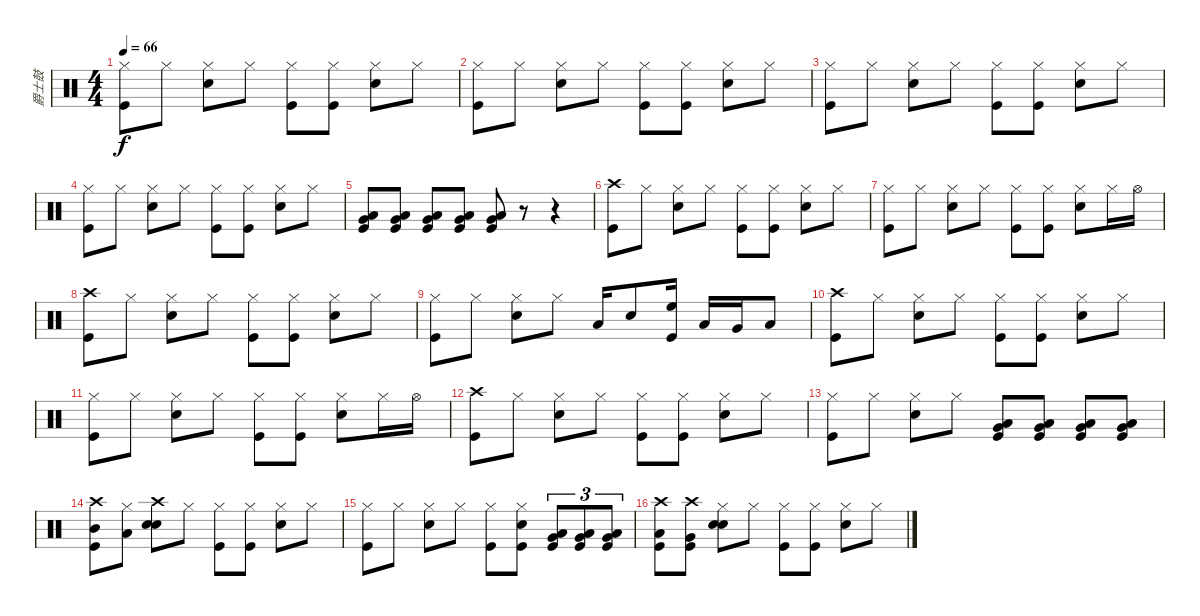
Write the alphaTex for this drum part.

\track ("爵士鼓" "爵士鼓") {instrument percussion}
\staff {score}
\articulation defaults
\ts (4 4)
\tempo 66
\clef neutral
\ks c
("Hi-Hat (closed)" "Kick (hit)").8{dy f} "Hi-Hat (closed)".8 ("Hi-Hat (closed)" "Snare (hit) 2").8 "Hi-Hat (closed)".8 ("Hi-Hat (closed)" "Kick (hit)").8 ("Hi-Hat (closed)" "Kick (hit)").8 ("Hi-Hat (closed)" "Snare (hit) 2").8 "Hi-Hat (closed)".8 |
("Hi-Hat (closed)" "Kick (hit)").8 "Hi-Hat (closed)".8 ("Hi-Hat (closed)" "Snare (hit) 2").8 "Hi-Hat (closed)".8 ("Hi-Hat (closed)" "Kick (hit)").8 ("Hi-Hat (closed)" "Kick (hit)").8 ("Hi-Hat (closed)" "Snare (hit) 2").8 "Hi-Hat (closed)".8 |
("Hi-Hat (closed)" "Kick (hit)").8 "Hi-Hat (closed)".8 ("Hi-Hat (closed)" "Snare (hit) 2").8 "Hi-Hat (closed)".8 ("Hi-Hat (closed)" "Kick (hit)").8 ("Hi-Hat (closed)" "Kick (hit)").8 ("Hi-Hat (closed)" "Snare (hit) 2").8 "Hi-Hat (closed)".8 |
("Hi-Hat (closed)" "Kick (hit)").8 "Hi-Hat (closed)".8 ("Hi-Hat (closed)" "Snare (hit) 2").8 "Hi-Hat (closed)".8 ("Hi-Hat (closed)" "Kick (hit)").8 ("Hi-Hat (closed)" "Kick (hit)").8 ("Hi-Hat (closed)" "Snare (hit) 2").8 "Hi-Hat (closed)".8 |
("Low Tom (hit)" "Very Low Tom (hit)" "Kick (hit)").8 ("Low Tom (hit)" "Very Low Tom (hit)" "Kick (hit)").8 ("Very Low Tom (hit)" "Low Floor Tom (hit)" "Kick (hit)").8 ("Very Low Tom (hit)" "Low Floor Tom (hit)" "Kick (hit)").8 ("Very Low Tom (hit)" "Low Floor Tom (hit)" "Kick (hit)").8 r.8 r.4 |
("Crash high (hit)" "Kick (hit)").8 "Hi-Hat (closed)".8 ("Hi-Hat (closed)" "Snare (hit) 2").8 "Hi-Hat (closed)".8 ("Hi-Hat (closed)" "Kick (hit)").8 ("Hi-Hat (closed)" "Kick (hit)").8 ("Hi-Hat (closed)" "Snare (hit) 2").8 "Hi-Hat (closed)".8 |
("Hi-Hat (closed)" "Kick (hit)").8 "Hi-Hat (closed)".8 ("Hi-Hat (closed)" "Snare (hit) 2").8 "Hi-Hat (closed)".8 ("Hi-Hat (closed)" "Kick (hit)").8 ("Hi-Hat (closed)" "Kick (hit)").8 ("Hi-Hat (closed)" "Snare (hit) 2").8 "Hi-Hat (closed)".16 "Hi-Hat (open)".16 |
("Crash high (hit)" "Kick (hit)").8 "Hi-Hat (closed)".8 ("Hi-Hat (closed)" "Snare (hit) 2").8 "Hi-Hat (closed)".8 ("Hi-Hat (closed)" "Kick (hit)").8 ("Hi-Hat (closed)" "Kick (hit)").8 ("Hi-Hat (closed)" "Snare (hit) 2").8 "Hi-Hat (closed)".8 |
("Hi-Hat (closed)" "Kick (hit)").8 "Hi-Hat (closed)".8 ("Hi-Hat (closed)" "Snare (hit) 2").8 "Hi-Hat (closed)".8 "Low Tom (hit)".16 "Electric Snare (hit)".8 ("High Floor Tom (hit)" "Kick (hit)").16 "Low Tom (hit)".16 "Very Low Tom (hit)".16 "Low Floor Tom (hit)".8 |
("Crash high (hit)" "Kick (hit)").8 "Hi-Hat (closed)".8 ("Hi-Hat (closed)" "Snare (hit) 2").8 "Hi-Hat (closed)".8 ("Hi-Hat (closed)" "Kick (hit)").8 ("Hi-Hat (closed)" "Kick (hit)").8 ("Hi-Hat (closed)" "Snare (hit) 2").8 "Hi-Hat (closed)".8 |
("Hi-Hat (closed)" "Kick (hit)").8 "Hi-Hat (closed)".8 ("Hi-Hat (closed)" "Snare (hit) 2").8 "Hi-Hat (closed)".8 ("Hi-Hat (closed)" "Kick (hit)").8 ("Hi-Hat (closed)" "Kick (hit)").8 ("Hi-Hat (closed)" "Snare (hit) 2").8 "Hi-Hat (closed)".16 "Hi-Hat (open)".16 |
("Crash high (hit)" "Kick (hit)").8 "Hi-Hat (closed)".8 ("Hi-Hat (closed)" "Snare (hit) 2").8 "Hi-Hat (closed)".8 ("Hi-Hat (closed)" "Kick (hit)").8 ("Hi-Hat (closed)" "Kick (hit)").8 ("Hi-Hat (closed)" "Snare (hit) 2").8 "Hi-Hat (closed)".8 |
("Hi-Hat (closed)" "Kick (hit)").8 "Hi-Hat (closed)".8 ("Hi-Hat (closed)" "Snare (hit) 2").8 "Hi-Hat (closed)".8 ("Low Tom (hit)" "Very Low Tom (hit)" "Kick (hit)").8 ("Low Tom (hit)" "Very Low Tom (hit)" "Kick (hit)").8 ("Very Low Tom (hit)" "Low Floor Tom (hit)" "Kick (hit)").8 ("Very Low Tom (hit)" "Low Floor Tom (hit)" "Kick (hit)").8 |
("Crash high (hit)" "Mid Tom (hit)" "Kick (hit)").8 ("Hi-Hat (closed)" "Low Tom (hit)").8 ("Crash high (hit)" "Electric Snare (hit)" "Snare (hit) 2").8 "Hi-Hat (closed)".8 ("Hi-Hat (closed)" "Kick (hit)").8 ("Hi-Hat (closed)" "Kick (hit)").8 ("Hi-Hat (closed)" "Snare (hit) 2").8 "Hi-Hat (closed)".8 |
("Hi-Hat (closed)" "Kick (hit)").8 "Hi-Hat (closed)".8 ("Hi-Hat (closed)" "Snare (hit) 2").8 "Hi-Hat (closed)".8 ("Hi-Hat (closed)" "Kick (hit)").8 ("Hi-Hat (closed)" "Electric Snare (hit)" "Kick (hit)").8 ("Low Tom (hit)" "Very Low Tom (hit)" "Kick (hit)").8{tu (3 2)} ("Low Tom (hit)" "Very Low Tom (hit)" "Kick (hit)").8{tu (3 2)} ("Very Low Tom (hit)" "Low Floor Tom (hit)" "Kick (hit)").8{tu (3 2)} |
("Crash high (hit)" "Low Tom (hit)" "Kick (hit)").8 ("Crash high (hit)" "Very Low Tom (hit)" "Kick (hit)").8 ("Hi-Hat (closed)" "Electric Snare (hit)" "Snare (hit) 2").8 "Hi-Hat (closed)".8 ("Hi-Hat (closed)" "Kick (hit)").8 ("Hi-Hat (closed)" "Kick (hit)").8 ("Hi-Hat (closed)" "Snare (hit) 2").8 "Hi-Hat (closed)".8
